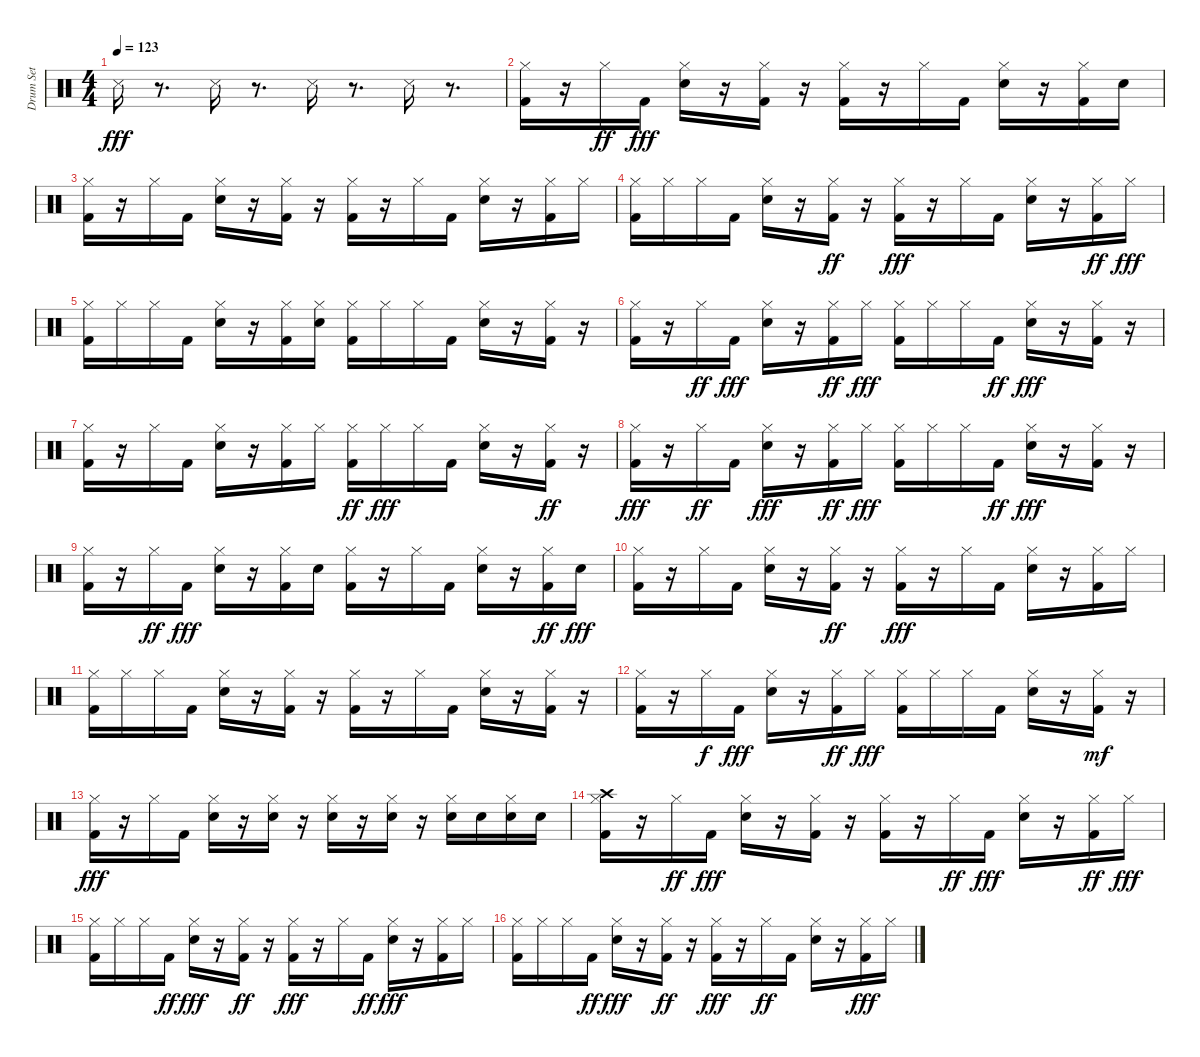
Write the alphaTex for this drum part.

\track ("Drum Set" "Drum Set") {instrument percussion}
\staff {score}
\articulation defaults
\ts (4 4)
\tempo 123
\clef neutral
\ks c "Snare (side stick) 3".16{dy fff}
r.8{d} "Snare (side stick) 3".16 r.8{d} "Snare (side stick) 3".16 r.8{d} "Snare (side stick) 3".16 r.8{d} |
("Kick (hit) 2" "Hi-Hat (closed)").16 r.16 "Hi-Hat (closed)".16{dy ff} "Kick (hit) 2".16{dy fff} ("Snare (hit) 2" "Hi-Hat (closed)").16 r.16 ("Kick (hit) 2" "Hi-Hat (closed)").16 r.16 ("Kick (hit) 2" "Hi-Hat (closed)").16 r.16 "Hi-Hat (closed)".16 "Kick (hit) 2".16 ("Hi-Hat (closed)" "Snare (hit) 2").16 r.16 ("Hi-Hat (closed)" "Kick (hit) 2").16 "Snare (hit) 2".16 |
("Hi-Hat (closed)" "Kick (hit) 2").16 r.16 "Hi-Hat (closed)".16 "Kick (hit) 2".16 ("Hi-Hat (closed)" "Snare (hit) 2").16 r.16 ("Hi-Hat (closed)" "Kick (hit) 2").16 r.16 ("Kick (hit) 2" "Hi-Hat (closed)").16 r.16 "Hi-Hat (closed)".16 "Kick (hit) 2".16 ("Hi-Hat (closed)" "Snare (hit) 2").16 r.16 ("Kick (hit) 2" "Hi-Hat (closed)").16 "Hi-Hat (closed)".16 |
("Kick (hit) 2" "Hi-Hat (closed)").16 "Hi-Hat (closed)".16 "Hi-Hat (closed)".16 "Kick (hit) 2".16 ("Snare (hit) 2" "Hi-Hat (closed)").16 r.16 ("Kick (hit) 2" "Hi-Hat (closed)").16{dy ff} r.16 ("Kick (hit) 2" "Hi-Hat (closed)").16{dy fff} r.16 "Hi-Hat (closed)".16 "Kick (hit) 2".16 ("Snare (hit) 2" "Hi-Hat (closed)").16 r.16 ("Hi-Hat (closed)" "Kick (hit) 2").16{dy ff} "Hi-Hat (closed)".16{dy fff} |
("Hi-Hat (closed)" "Kick (hit) 2").16 "Hi-Hat (closed)".16 "Hi-Hat (closed)".16 "Kick (hit) 2".16 ("Snare (hit) 2" "Hi-Hat (closed)").16 r.16 ("Kick (hit) 2" "Hi-Hat (closed)").16 ("Snare (hit) 2" "Hi-Hat (closed)").16 ("Kick (hit) 2" "Hi-Hat (closed)").16 "Hi-Hat (closed)".16 "Hi-Hat (closed)".16 "Kick (hit) 2".16 ("Hi-Hat (closed)" "Snare (hit) 2").16 r.16 ("Kick (hit) 2" "Hi-Hat (closed)").16 r.16 |
("Kick (hit) 2" "Hi-Hat (closed)").16 r.16 "Hi-Hat (closed)".16{dy ff} "Kick (hit) 2".16{dy fff} ("Hi-Hat (closed)" "Snare (hit) 2").16 r.16 ("Hi-Hat (closed)" "Kick (hit) 2").16{dy ff} "Hi-Hat (closed)".16{dy fff} ("Hi-Hat (closed)" "Kick (hit) 2").16 "Hi-Hat (closed)".16 "Hi-Hat (closed)".16 "Kick (hit) 2".16{dy ff} ("Hi-Hat (closed)" "Snare (hit) 2").16{dy fff} r.16 ("Kick (hit) 2" "Hi-Hat (closed)").16 r.16 |
("Kick (hit) 2" "Hi-Hat (closed)").16 r.16 "Hi-Hat (closed)".16 "Kick (hit) 2".16 ("Snare (hit) 2" "Hi-Hat (closed)").16 r.16 ("Kick (hit) 2" "Hi-Hat (closed)").16 "Hi-Hat (closed)".16 ("Hi-Hat (closed)" "Kick (hit) 2").16{dy ff} "Hi-Hat (closed)".16{dy fff} "Hi-Hat (closed)".16 "Kick (hit) 2".16 ("Snare (hit) 2" "Hi-Hat (closed)").16 r.16 ("Kick (hit) 2" "Hi-Hat (closed)").16{dy ff} r.16 |
("Hi-Hat (closed)" "Kick (hit) 2").16{dy fff} r.16 "Hi-Hat (closed)".16{dy ff} "Kick (hit) 2".16 ("Hi-Hat (closed)" "Snare (hit) 2").16{dy fff} r.16 ("Hi-Hat (closed)" "Kick (hit) 2").16{dy ff} "Hi-Hat (closed)".16{dy fff} ("Hi-Hat (closed)" "Kick (hit) 2").16 "Hi-Hat (closed)".16 "Hi-Hat (closed)".16 "Kick (hit) 2".16{dy ff} ("Hi-Hat (closed)" "Snare (hit) 2").16{dy fff} r.16 ("Kick (hit) 2" "Hi-Hat (closed)").16 r.16 |
("Kick (hit) 2" "Hi-Hat (closed)").16 r.16 "Hi-Hat (closed)".16{dy ff} "Kick (hit) 2".16{dy fff} ("Hi-Hat (closed)" "Snare (hit) 2").16 r.16 ("Hi-Hat (closed)" "Kick (hit) 2").16 "Snare (hit) 2".16 ("Hi-Hat (closed)" "Kick (hit) 2").16 r.16 "Hi-Hat (closed)".16 "Kick (hit) 2".16 ("Hi-Hat (closed)" "Snare (hit) 2").16 r.16 ("Hi-Hat (closed)" "Kick (hit) 2").16{dy ff} "Snare (hit) 2".16{dy fff} |
("Kick (hit) 2" "Hi-Hat (closed)").16 r.16 "Hi-Hat (closed)".16 "Kick (hit) 2".16 ("Snare (hit) 2" "Hi-Hat (closed)").16 r.16 ("Kick (hit) 2" "Hi-Hat (closed)").16{dy ff} r.16 ("Kick (hit) 2" "Hi-Hat (closed)").16{dy fff} r.16 "Hi-Hat (closed)".16 "Kick (hit) 2".16 ("Hi-Hat (closed)" "Snare (hit) 2").16 r.16 ("Kick (hit) 2" "Hi-Hat (closed)").16 "Hi-Hat (closed)".16 |
("Hi-Hat (closed)" "Kick (hit) 2").16 "Hi-Hat (closed)".16 "Hi-Hat (closed)".16 "Kick (hit) 2".16 ("Snare (hit) 2" "Hi-Hat (closed)").16 r.16 ("Kick (hit) 2" "Hi-Hat (closed)").16 r.16 ("Kick (hit) 2" "Hi-Hat (closed)").16 r.16 "Hi-Hat (closed)".16 "Kick (hit) 2".16 ("Snare (hit) 2" "Hi-Hat (closed)").16 r.16 ("Hi-Hat (closed)" "Kick (hit) 2").16 r.16 |
("Kick (hit) 2" "Hi-Hat (closed)").16 r.16 "Hi-Hat (closed)".16{dy f} "Kick (hit) 2".16{dy fff} ("Hi-Hat (closed)" "Snare (hit) 2").16 r.16 ("Kick (hit) 2" "Hi-Hat (closed)").16{dy ff} "Hi-Hat (closed)".16{dy fff} ("Hi-Hat (closed)" "Kick (hit) 2").16 "Hi-Hat (closed)".16 "Hi-Hat (closed)".16 "Kick (hit) 2".16 ("Snare (hit) 2" "Hi-Hat (closed)").16 r.16 ("Kick (hit) 2" "Hi-Hat (closed)").16{dy mf} r.16 |
("Kick (hit) 2" "Hi-Hat (closed)").16{dy fff} r.16 "Hi-Hat (closed)".16 "Kick (hit) 2".16 ("Snare (hit) 2" "Hi-Hat (closed)").16 r.16 ("Hi-Hat (closed)" "Snare (hit) 2").16 r.16 ("Snare (hit) 2" "Hi-Hat (closed)").16 r.16 ("Hi-Hat (closed)" "Snare (hit) 2").16 r.16 ("Snare (hit) 2" "Hi-Hat (closed)").16 "Snare (hit) 2".16 ("Hi-Hat (closed)" "Snare (hit) 2").16 "Snare (hit) 2".16 |
("Crash high (hit)" "Kick (hit) 2" "Hi-Hat (closed)").16 r.16 "Hi-Hat (closed)".16{dy ff} "Kick (hit) 2".16{dy fff} ("Snare (hit) 2" "Hi-Hat (closed)").16 r.16 ("Kick (hit) 2" "Hi-Hat (closed)").16 r.16 ("Kick (hit) 2" "Hi-Hat (closed)").16 r.16 "Hi-Hat (closed)".16{dy ff} "Kick (hit) 2".16{dy fff} ("Hi-Hat (closed)" "Snare (hit) 2").16 r.16 ("Hi-Hat (closed)" "Kick (hit) 2").16{dy ff} "Hi-Hat (closed)".16{dy fff} |
("Hi-Hat (closed)" "Kick (hit) 2").16 "Hi-Hat (closed)".16 "Hi-Hat (closed)".16 "Kick (hit) 2".16{dy ff} ("Snare (hit) 2" "Hi-Hat (closed)").16{dy fff} r.16 ("Hi-Hat (closed)" "Kick (hit) 2").16{dy ff} r.16 ("Kick (hit) 2" "Hi-Hat (closed)").16{dy fff} r.16 "Hi-Hat (closed)".16 "Kick (hit) 2".16{dy ff} ("Snare (hit) 2" "Hi-Hat (closed)").16{dy fff} r.16 ("Kick (hit) 2" "Hi-Hat (closed)").16 "Hi-Hat (closed)".16 |
("Hi-Hat (closed)" "Kick (hit) 2").16 "Hi-Hat (closed)".16 "Hi-Hat (closed)".16 "Kick (hit) 2".16{dy ff} ("Snare (hit) 2" "Hi-Hat (closed)").16{dy fff} r.16 ("Kick (hit) 2" "Hi-Hat (closed)").16{dy ff} r.16 ("Kick (hit) 2" "Hi-Hat (closed)").16{dy fff} r.16 "Hi-Hat (closed)".16{dy ff} "Kick (hit) 2".16 ("Hi-Hat (closed)" "Snare (hit) 2").16 r.16 ("Kick (hit) 2" "Hi-Hat (closed)").16{dy fff} "Hi-Hat (closed)".16
